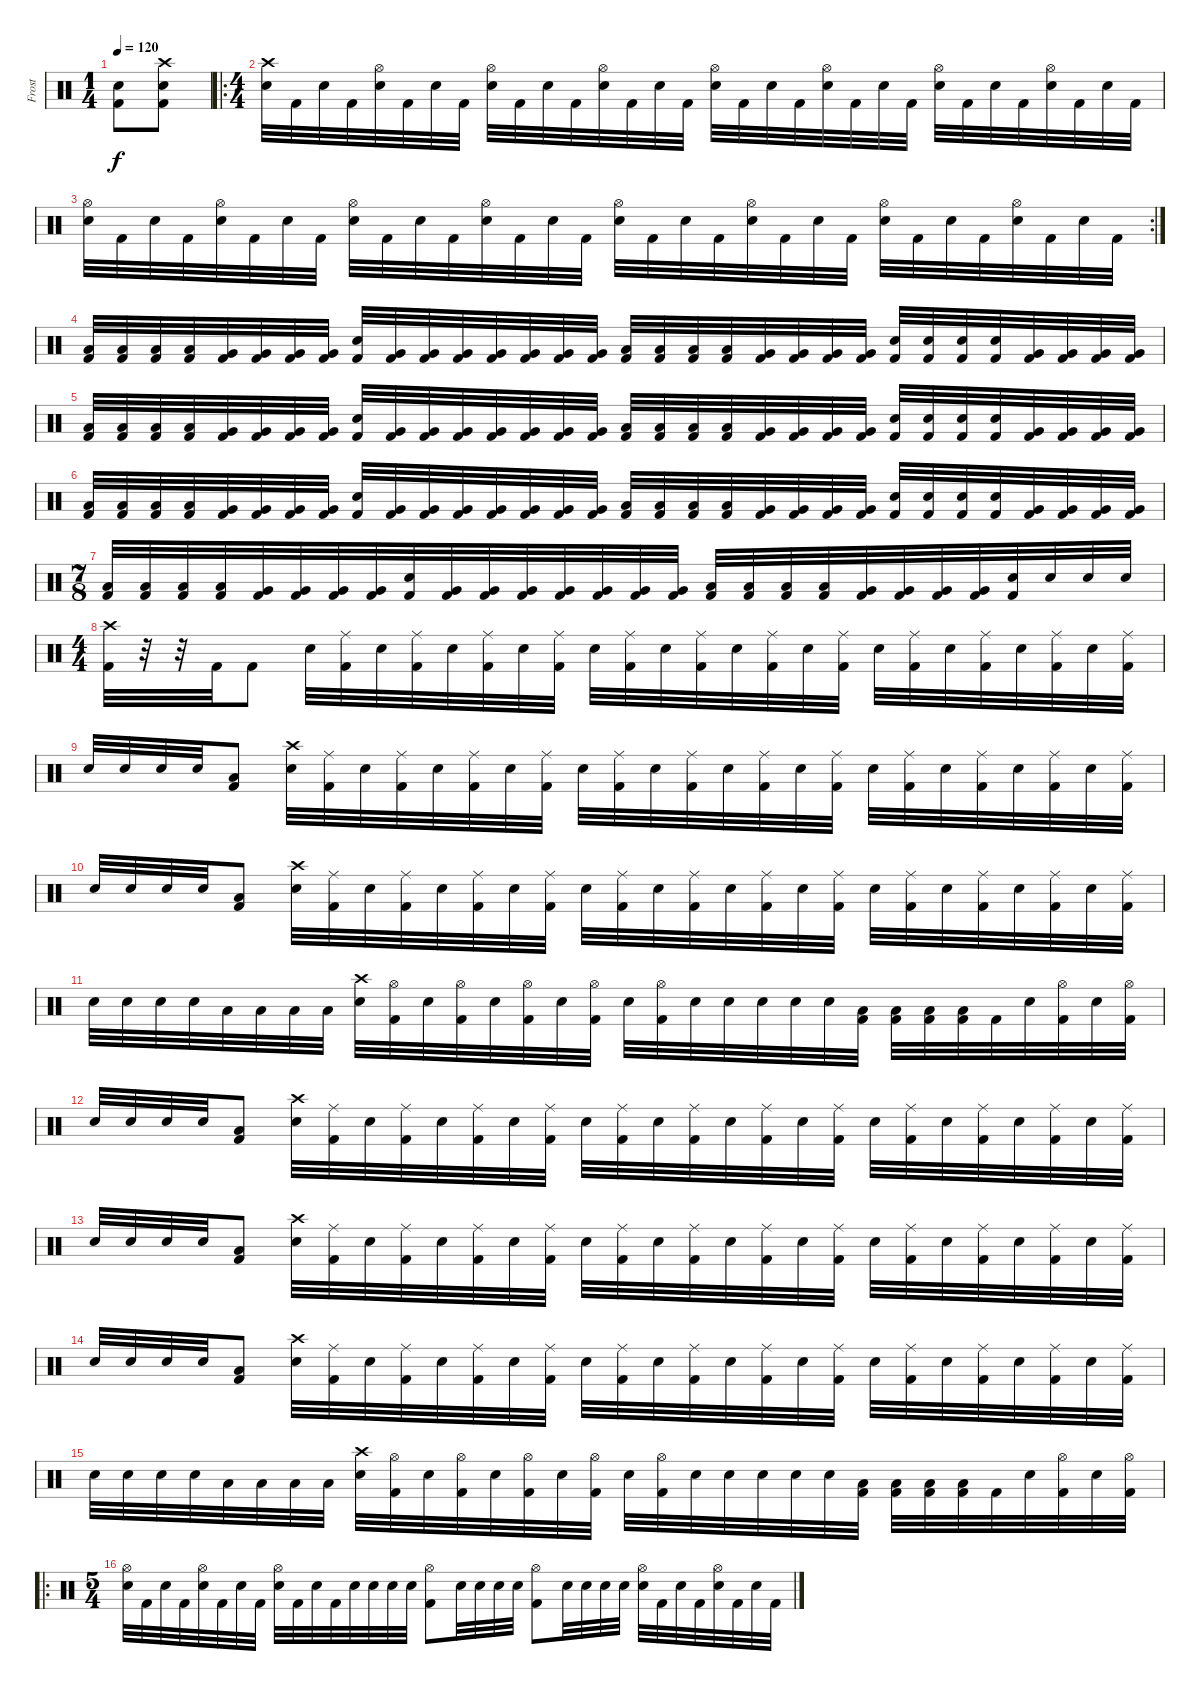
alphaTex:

\track ("Frost" "Frost") {instrument percussion}
\staff {score}
\articulation defaults
\ts (1 4)
\tempo 120
\clef neutral
\ks c
("Snare (hit) 2" "Kick (hit) 2").8{dy f} ("Crash high (hit)" "Snare (hit) 2" "Kick (hit) 2").8 |
\ro
\ts (4 4)
("Crash high (hit)" "Snare (hit) 2").32 "Kick (hit) 2".32 "Snare (hit) 2".32 "Kick (hit) 2".32 ("Hi-Hat (open)" "Snare (hit) 2").32 "Kick (hit) 2".32 "Snare (hit) 2".32 "Kick (hit) 2".32 ("Hi-Hat (open)" "Snare (hit) 2").32 "Kick (hit) 2".32 "Snare (hit) 2".32 "Kick (hit) 2".32 ("Hi-Hat (open)" "Snare (hit) 2").32 "Kick (hit) 2".32 "Snare (hit) 2".32 "Kick (hit) 2".32 ("Hi-Hat (open)" "Snare (hit) 2").32 "Kick (hit) 2".32 "Snare (hit) 2".32 "Kick (hit) 2".32 ("Hi-Hat (open)" "Snare (hit) 2").32 "Kick (hit) 2".32 "Snare (hit) 2".32 "Kick (hit) 2".32 ("Hi-Hat (open)" "Snare (hit) 2").32 "Kick (hit) 2".32 "Snare (hit) 2".32 "Kick (hit) 2".32 ("Hi-Hat (open)" "Snare (hit) 2").32 "Kick (hit) 2".32 "Snare (hit) 2".32 "Kick (hit) 2".32 |
\rc 2
("Hi-Hat (open)" "Snare (hit) 2").32 "Kick (hit) 2".32 "Snare (hit) 2".32 "Kick (hit) 2".32 ("Hi-Hat (open)" "Snare (hit) 2").32 "Kick (hit) 2".32 "Snare (hit) 2".32 "Kick (hit) 2".32 ("Hi-Hat (open)" "Snare (hit) 2").32 "Kick (hit) 2".32 "Snare (hit) 2".32 "Kick (hit) 2".32 ("Hi-Hat (open)" "Snare (hit) 2").32 "Kick (hit) 2".32 "Snare (hit) 2".32 "Kick (hit) 2".32 ("Hi-Hat (open)" "Snare (hit) 2").32 "Kick (hit) 2".32 "Snare (hit) 2".32 "Kick (hit) 2".32 ("Hi-Hat (open)" "Snare (hit) 2").32 "Kick (hit) 2".32 "Snare (hit) 2".32 "Kick (hit) 2".32 ("Hi-Hat (open)" "Snare (hit) 2").32 "Kick (hit) 2".32 "Snare (hit) 2".32 "Kick (hit) 2".32 ("Hi-Hat (open)" "Snare (hit) 2").32 "Kick (hit) 2".32 "Snare (hit) 2".32 "Kick (hit) 2".32 |
("Low Tom (hit)" "Kick (hit) 2").32 ("Low Tom (hit)" "Kick (hit) 2").32 ("Low Tom (hit)" "Kick (hit) 2").32 ("Low Tom (hit)" "Kick (hit) 2").32 ("Very Low Tom (hit)" "Kick (hit) 2").32 ("Very Low Tom (hit)" "Kick (hit) 2").32 ("Very Low Tom (hit)" "Kick (hit) 2").32 ("Very Low Tom (hit)" "Kick (hit) 2").32 ("Snare (hit) 2" "Kick (hit) 2").32 ("Very Low Tom (hit)" "Kick (hit) 2").32 ("Very Low Tom (hit)" "Kick (hit) 2").32 ("Very Low Tom (hit)" "Kick (hit) 2").32 ("Very Low Tom (hit)" "Kick (hit) 2").32 ("Very Low Tom (hit)" "Kick (hit) 2").32 ("Very Low Tom (hit)" "Kick (hit) 2").32 ("Very Low Tom (hit)" "Kick (hit) 2").32 ("Low Tom (hit)" "Kick (hit) 2").32 ("Low Tom (hit)" "Kick (hit) 2").32 ("Low Tom (hit)" "Kick (hit) 2").32 ("Low Tom (hit)" "Kick (hit) 2").32 ("Very Low Tom (hit)" "Kick (hit) 2").32 ("Very Low Tom (hit)" "Kick (hit) 2").32 ("Very Low Tom (hit)" "Kick (hit) 2").32 ("Very Low Tom (hit)" "Kick (hit) 2").32 ("Snare (hit) 2" "Kick (hit) 2").32 ("Snare (hit) 2" "Kick (hit) 2").32 ("Snare (hit) 2" "Kick (hit) 2").32 ("Snare (hit) 2" "Kick (hit) 2").32 ("Very Low Tom (hit)" "Kick (hit) 2").32 ("Very Low Tom (hit)" "Kick (hit) 2").32 ("Very Low Tom (hit)" "Kick (hit) 2").32 ("Very Low Tom (hit)" "Kick (hit) 2").32 |
("Low Tom (hit)" "Kick (hit) 2").32 ("Low Tom (hit)" "Kick (hit) 2").32 ("Low Tom (hit)" "Kick (hit) 2").32 ("Low Tom (hit)" "Kick (hit) 2").32 ("Very Low Tom (hit)" "Kick (hit) 2").32 ("Very Low Tom (hit)" "Kick (hit) 2").32 ("Very Low Tom (hit)" "Kick (hit) 2").32 ("Very Low Tom (hit)" "Kick (hit) 2").32 ("Snare (hit) 2" "Kick (hit) 2").32 ("Very Low Tom (hit)" "Kick (hit) 2").32 ("Very Low Tom (hit)" "Kick (hit) 2").32 ("Very Low Tom (hit)" "Kick (hit) 2").32 ("Very Low Tom (hit)" "Kick (hit) 2").32 ("Very Low Tom (hit)" "Kick (hit) 2").32 ("Very Low Tom (hit)" "Kick (hit) 2").32 ("Very Low Tom (hit)" "Kick (hit) 2").32 ("Low Tom (hit)" "Kick (hit) 2").32 ("Low Tom (hit)" "Kick (hit) 2").32 ("Low Tom (hit)" "Kick (hit) 2").32 ("Low Tom (hit)" "Kick (hit) 2").32 ("Very Low Tom (hit)" "Kick (hit) 2").32 ("Very Low Tom (hit)" "Kick (hit) 2").32 ("Very Low Tom (hit)" "Kick (hit) 2").32 ("Very Low Tom (hit)" "Kick (hit) 2").32 ("Snare (hit) 2" "Kick (hit) 2").32 ("Snare (hit) 2" "Kick (hit) 2").32 ("Snare (hit) 2" "Kick (hit) 2").32 ("Snare (hit) 2" "Kick (hit) 2").32 ("Very Low Tom (hit)" "Kick (hit) 2").32 ("Very Low Tom (hit)" "Kick (hit) 2").32 ("Very Low Tom (hit)" "Kick (hit) 2").32 ("Very Low Tom (hit)" "Kick (hit) 2").32 |
("Low Tom (hit)" "Kick (hit) 2").32 ("Low Tom (hit)" "Kick (hit) 2").32 ("Low Tom (hit)" "Kick (hit) 2").32 ("Low Tom (hit)" "Kick (hit) 2").32 ("Very Low Tom (hit)" "Kick (hit) 2").32 ("Very Low Tom (hit)" "Kick (hit) 2").32 ("Very Low Tom (hit)" "Kick (hit) 2").32 ("Very Low Tom (hit)" "Kick (hit) 2").32 ("Snare (hit) 2" "Kick (hit) 2").32 ("Very Low Tom (hit)" "Kick (hit) 2").32 ("Very Low Tom (hit)" "Kick (hit) 2").32 ("Very Low Tom (hit)" "Kick (hit) 2").32 ("Very Low Tom (hit)" "Kick (hit) 2").32 ("Very Low Tom (hit)" "Kick (hit) 2").32 ("Very Low Tom (hit)" "Kick (hit) 2").32 ("Very Low Tom (hit)" "Kick (hit) 2").32 ("Low Tom (hit)" "Kick (hit) 2").32 ("Low Tom (hit)" "Kick (hit) 2").32 ("Low Tom (hit)" "Kick (hit) 2").32 ("Low Tom (hit)" "Kick (hit) 2").32 ("Very Low Tom (hit)" "Kick (hit) 2").32 ("Very Low Tom (hit)" "Kick (hit) 2").32 ("Very Low Tom (hit)" "Kick (hit) 2").32 ("Very Low Tom (hit)" "Kick (hit) 2").32 ("Snare (hit) 2" "Kick (hit) 2").32 ("Snare (hit) 2" "Kick (hit) 2").32 ("Snare (hit) 2" "Kick (hit) 2").32 ("Snare (hit) 2" "Kick (hit) 2").32 ("Very Low Tom (hit)" "Kick (hit) 2").32 ("Very Low Tom (hit)" "Kick (hit) 2").32 ("Very Low Tom (hit)" "Kick (hit) 2").32 ("Very Low Tom (hit)" "Kick (hit) 2").32 |
\ts (7 8)
("Low Tom (hit)" "Kick (hit) 2").32 ("Low Tom (hit)" "Kick (hit) 2").32 ("Low Tom (hit)" "Kick (hit) 2").32 ("Low Tom (hit)" "Kick (hit) 2").32 ("Very Low Tom (hit)" "Kick (hit) 2").32 ("Very Low Tom (hit)" "Kick (hit) 2").32 ("Very Low Tom (hit)" "Kick (hit) 2").32 ("Very Low Tom (hit)" "Kick (hit) 2").32 ("Snare (hit) 2" "Kick (hit) 2").32 ("Very Low Tom (hit)" "Kick (hit) 2").32 ("Very Low Tom (hit)" "Kick (hit) 2").32 ("Very Low Tom (hit)" "Kick (hit) 2").32 ("Very Low Tom (hit)" "Kick (hit) 2").32 ("Very Low Tom (hit)" "Kick (hit) 2").32 ("Very Low Tom (hit)" "Kick (hit) 2").32 ("Very Low Tom (hit)" "Kick (hit) 2").32 ("Low Tom (hit)" "Kick (hit) 2").32 ("Low Tom (hit)" "Kick (hit) 2").32 ("Low Tom (hit)" "Kick (hit) 2").32 ("Low Tom (hit)" "Kick (hit) 2").32 ("Very Low Tom (hit)" "Kick (hit) 2").32 ("Very Low Tom (hit)" "Kick (hit) 2").32 ("Very Low Tom (hit)" "Kick (hit) 2").32 ("Very Low Tom (hit)" "Kick (hit) 2").32 ("Snare (hit) 2" "Kick (hit) 2").32 "Snare (hit)".32 "Snare (hit)".32 "Snare (hit)".32 |
\ts (4 4)
("Crash high (hit)" "Kick (hit) 2").32 r.32 r.32 "Kick (hit) 2".32 "Kick (hit) 2".8 "Snare (hit) 2".32 ("Ride (middle)" "Kick (hit) 2").32 "Snare (hit) 2".32 ("Ride (middle)" "Kick (hit) 2").32 "Snare (hit) 2".32 ("Ride (middle)" "Kick (hit) 2").32 "Snare (hit) 2".32 ("Ride (middle)" "Kick (hit) 2").32 "Snare (hit) 2".32 ("Ride (middle)" "Kick (hit) 2").32 "Snare (hit) 2".32 ("Ride (middle)" "Kick (hit) 2").32 "Snare (hit) 2".32 ("Ride (middle)" "Kick (hit) 2").32 "Snare (hit) 2".32 ("Ride (middle)" "Kick (hit) 2").32 "Snare (hit) 2".32 ("Ride (middle)" "Kick (hit) 2").32 "Snare (hit) 2".32 ("Ride (middle)" "Kick (hit) 2").32 "Snare (hit) 2".32 ("Ride (middle)" "Kick (hit) 2").32 "Snare (hit) 2".32 ("Ride (middle)" "Kick (hit) 2").32 |
"Snare (hit) 2".32 "Snare (hit) 2".32 "Snare (hit) 2".32 "Snare (hit) 2".32 ("Low Tom (hit)" "Kick (hit) 2").8 ("Crash high (hit)" "Snare (hit) 2").32 ("Ride (middle)" "Kick (hit) 2").32 "Snare (hit) 2".32 ("Ride (middle)" "Kick (hit) 2").32 "Snare (hit) 2".32 ("Ride (middle)" "Kick (hit) 2").32 "Snare (hit) 2".32 ("Ride (middle)" "Kick (hit) 2").32 "Snare (hit) 2".32 ("Ride (middle)" "Kick (hit) 2").32 "Snare (hit) 2".32 ("Ride (middle)" "Kick (hit) 2").32 "Snare (hit) 2".32 ("Ride (middle)" "Kick (hit) 2").32 "Snare (hit) 2".32 ("Ride (middle)" "Kick (hit) 2").32 "Snare (hit) 2".32 ("Ride (middle)" "Kick (hit) 2").32 "Snare (hit) 2".32 ("Ride (middle)" "Kick (hit) 2").32 "Snare (hit) 2".32 ("Ride (middle)" "Kick (hit) 2").32 "Snare (hit) 2".32 ("Ride (middle)" "Kick (hit) 2").32 |
"Snare (hit) 2".32 "Snare (hit) 2".32 "Snare (hit) 2".32 "Snare (hit) 2".32 ("Low Tom (hit)" "Kick (hit) 2").8 ("Crash high (hit)" "Snare (hit) 2").32 ("Ride (middle)" "Kick (hit) 2").32 "Snare (hit) 2".32 ("Ride (middle)" "Kick (hit) 2").32 "Snare (hit) 2".32 ("Ride (middle)" "Kick (hit) 2").32 "Snare (hit) 2".32 ("Ride (middle)" "Kick (hit) 2").32 "Snare (hit) 2".32 ("Ride (middle)" "Kick (hit) 2").32 "Snare (hit) 2".32 ("Ride (middle)" "Kick (hit) 2").32 "Snare (hit) 2".32 ("Ride (middle)" "Kick (hit) 2").32 "Snare (hit) 2".32 ("Ride (middle)" "Kick (hit) 2").32 "Snare (hit) 2".32 ("Ride (middle)" "Kick (hit) 2").32 "Snare (hit) 2".32 ("Ride (middle)" "Kick (hit) 2").32 "Snare (hit) 2".32 ("Ride (middle)" "Kick (hit) 2").32 "Snare (hit) 2".32 ("Ride (middle)" "Kick (hit) 2").32 |
"Snare (hit) 2".32 "Snare (hit) 2".32 "Snare (hit) 2".32 "Snare (hit) 2".32 "Low Tom (hit)".32 "Low Tom (hit)".32 "Low Tom (hit)".32 "Low Tom (hit)".32 ("Crash high (hit)" "Snare (hit) 2").32 ("Hi-Hat (open)" "Kick (hit) 2").32 "Snare (hit) 2".32 ("Hi-Hat (open)" "Kick (hit) 2").32 "Snare (hit) 2".32 ("Hi-Hat (open)" "Kick (hit) 2").32 "Snare (hit) 2".32 ("Hi-Hat (open)" "Kick (hit) 2").32 "Snare (hit) 2".32 ("Hi-Hat (open)" "Kick (hit) 2").32 "Snare (hit) 2".32 "Snare (hit) 2".32 "Snare (hit) 2".32 "Snare (hit) 2".32 "Snare (hit) 2".32 ("Low Tom (hit)" "Kick (hit) 2").32 ("Low Tom (hit)" "Kick (hit) 2").32 ("Low Tom (hit)" "Kick (hit) 2").32 ("Low Tom (hit)" "Kick (hit) 2").32 "Kick (hit) 2".32 "Snare (hit) 2".32 ("Hi-Hat (open)" "Kick (hit) 2").32 "Snare (hit) 2".32 ("Hi-Hat (open)" "Kick (hit) 2").32 |
"Snare (hit) 2".32 "Snare (hit) 2".32 "Snare (hit) 2".32 "Snare (hit) 2".32 ("Low Tom (hit)" "Kick (hit) 2").8 ("Crash high (hit)" "Snare (hit) 2").32 ("Ride (middle)" "Kick (hit) 2").32 "Snare (hit) 2".32 ("Ride (middle)" "Kick (hit) 2").32 "Snare (hit) 2".32 ("Ride (middle)" "Kick (hit) 2").32 "Snare (hit) 2".32 ("Ride (middle)" "Kick (hit) 2").32 "Snare (hit) 2".32 ("Ride (middle)" "Kick (hit) 2").32 "Snare (hit) 2".32 ("Ride (middle)" "Kick (hit) 2").32 "Snare (hit) 2".32 ("Ride (middle)" "Kick (hit) 2").32 "Snare (hit) 2".32 ("Ride (middle)" "Kick (hit) 2").32 "Snare (hit) 2".32 ("Ride (middle)" "Kick (hit) 2").32 "Snare (hit) 2".32 ("Ride (middle)" "Kick (hit) 2").32 "Snare (hit) 2".32 ("Ride (middle)" "Kick (hit) 2").32 "Snare (hit) 2".32 ("Ride (middle)" "Kick (hit) 2").32 |
"Snare (hit) 2".32 "Snare (hit) 2".32 "Snare (hit) 2".32 "Snare (hit) 2".32 ("Low Tom (hit)" "Kick (hit) 2").8 ("Crash high (hit)" "Snare (hit) 2").32 ("Ride (middle)" "Kick (hit) 2").32 "Snare (hit) 2".32 ("Ride (middle)" "Kick (hit) 2").32 "Snare (hit) 2".32 ("Ride (middle)" "Kick (hit) 2").32 "Snare (hit) 2".32 ("Ride (middle)" "Kick (hit) 2").32 "Snare (hit) 2".32 ("Ride (middle)" "Kick (hit) 2").32 "Snare (hit) 2".32 ("Ride (middle)" "Kick (hit) 2").32 "Snare (hit) 2".32 ("Ride (middle)" "Kick (hit) 2").32 "Snare (hit) 2".32 ("Ride (middle)" "Kick (hit) 2").32 "Snare (hit) 2".32 ("Ride (middle)" "Kick (hit) 2").32 "Snare (hit) 2".32 ("Ride (middle)" "Kick (hit) 2").32 "Snare (hit) 2".32 ("Ride (middle)" "Kick (hit) 2").32 "Snare (hit) 2".32 ("Ride (middle)" "Kick (hit) 2").32 |
"Snare (hit) 2".32 "Snare (hit) 2".32 "Snare (hit) 2".32 "Snare (hit) 2".32 ("Low Tom (hit)" "Kick (hit) 2").8 ("Crash high (hit)" "Snare (hit) 2").32 ("Ride (middle)" "Kick (hit) 2").32 "Snare (hit) 2".32 ("Ride (middle)" "Kick (hit) 2").32 "Snare (hit) 2".32 ("Ride (middle)" "Kick (hit) 2").32 "Snare (hit) 2".32 ("Ride (middle)" "Kick (hit) 2").32 "Snare (hit) 2".32 ("Ride (middle)" "Kick (hit) 2").32 "Snare (hit) 2".32 ("Ride (middle)" "Kick (hit) 2").32 "Snare (hit) 2".32 ("Ride (middle)" "Kick (hit) 2").32 "Snare (hit) 2".32 ("Ride (middle)" "Kick (hit) 2").32 "Snare (hit) 2".32 ("Ride (middle)" "Kick (hit) 2").32 "Snare (hit) 2".32 ("Ride (middle)" "Kick (hit) 2").32 "Snare (hit) 2".32 ("Ride (middle)" "Kick (hit) 2").32 "Snare (hit) 2".32 ("Ride (middle)" "Kick (hit) 2").32 |
"Snare (hit) 2".32 "Snare (hit) 2".32 "Snare (hit) 2".32 "Snare (hit) 2".32 "Low Tom (hit)".32 "Low Tom (hit)".32 "Low Tom (hit)".32 "Low Tom (hit)".32 ("Crash high (hit)" "Snare (hit) 2").32 ("Hi-Hat (open)" "Kick (hit) 2").32 "Snare (hit) 2".32 ("Hi-Hat (open)" "Kick (hit) 2").32 "Snare (hit) 2".32 ("Hi-Hat (open)" "Kick (hit) 2").32 "Snare (hit) 2".32 ("Hi-Hat (open)" "Kick (hit) 2").32 "Snare (hit) 2".32 ("Hi-Hat (open)" "Kick (hit) 2").32 "Snare (hit) 2".32 "Snare (hit) 2".32 "Snare (hit) 2".32 "Snare (hit) 2".32 "Snare (hit) 2".32 ("Low Tom (hit)" "Kick (hit) 2").32 ("Low Tom (hit)" "Kick (hit) 2").32 ("Low Tom (hit)" "Kick (hit) 2").32 ("Low Tom (hit)" "Kick (hit) 2").32 "Kick (hit) 2".32 "Snare (hit) 2".32 ("Hi-Hat (open)" "Kick (hit) 2").32 "Snare (hit) 2".32 ("Hi-Hat (open)" "Kick (hit) 2").32 |
\ro
\ts (5 4)
("Hi-Hat (open)" "Snare (hit) 2").32 "Kick (hit) 2".32 "Snare (hit) 2".32 "Kick (hit) 2".32 ("Hi-Hat (open)" "Snare (hit) 2").32 "Kick (hit) 2".32 "Snare (hit) 2".32 "Kick (hit) 2".32 ("Hi-Hat (open)" "Snare (hit) 2").32 "Kick (hit) 2".32 "Snare (hit) 2".32 "Kick (hit) 2".32 "Snare (hit) 2".32 "Snare (hit) 2".32 "Snare (hit) 2".32 "Snare (hit) 2".32 ("Hi-Hat (open)" "Kick (hit) 2").8 "Snare (hit) 2".32 "Snare (hit) 2".32 "Snare (hit) 2".32 "Snare (hit) 2".32 ("Hi-Hat (open)" "Kick (hit) 2").8 "Snare (hit) 2".32 "Snare (hit) 2".32 "Snare (hit) 2".32 "Snare (hit) 2".32 ("Hi-Hat (open)" "Snare (hit) 2").32 "Kick (hit) 2".32 "Snare (hit) 2".32 "Kick (hit) 2".32 ("Hi-Hat (open)" "Snare (hit) 2").32 "Kick (hit) 2".32 "Snare (hit) 2".32 "Kick (hit) 2".32
